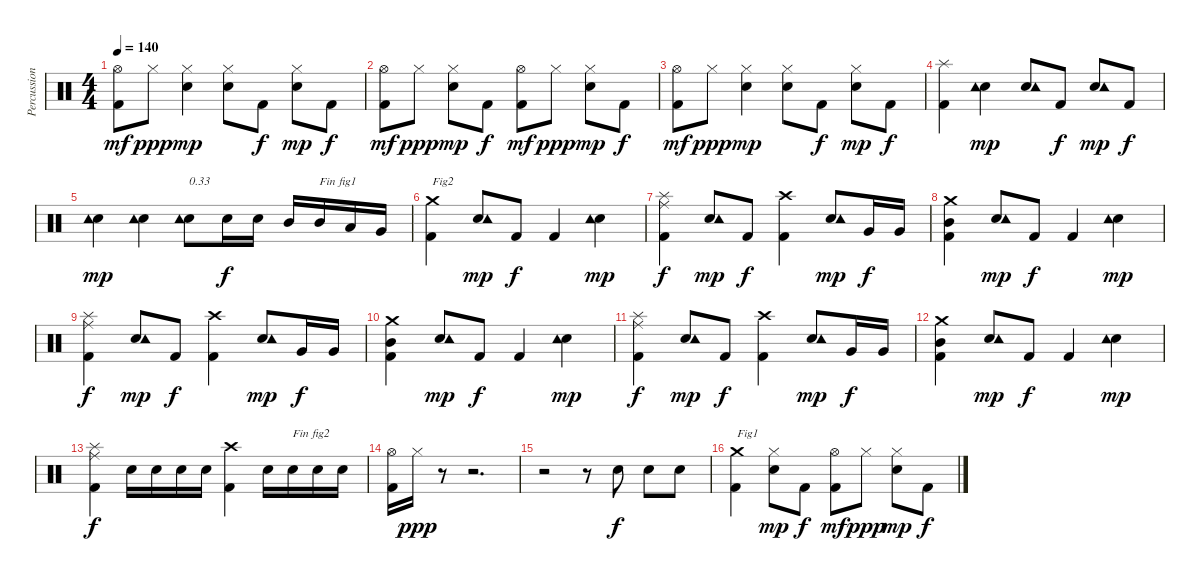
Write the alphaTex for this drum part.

\track ("Percussions" "Percussion") {instrument percussion}
\staff {score}
\articulation defaults
\ts (4 4)
\tempo 140
\clef neutral
\ks c
("Kick (hit) 2" "Hi-Hat (open)").8{dy mf} "Hi-Hat (closed)".8{dy ppp} ("Electric Snare (hit)" "Hi-Hat (closed)").4{dy mp} ("Electric Snare (hit)" "Hi-Hat (closed)").8 "Kick (hit) 2".8{dy f} ("Electric Snare (hit)" "Hi-Hat (closed)").8{dy mp} "Kick (hit) 2".8{dy f} |
("Kick (hit) 2" "Hi-Hat (open)").8{dy mf} "Hi-Hat (closed)".8{dy ppp} ("Electric Snare (hit)" "Hi-Hat (closed)").8{dy mp} "Kick (hit) 2".8{dy f} ("Kick (hit) 2" "Hi-Hat (open)").8{dy mf} "Hi-Hat (closed)".8{dy ppp} ("Electric Snare (hit)" "Hi-Hat (closed)").8{dy mp} "Kick (hit) 2".8{dy f} |
("Kick (hit) 2" "Hi-Hat (open)").8{dy mf} "Hi-Hat (closed)".8{dy ppp} ("Electric Snare (hit)" "Hi-Hat (closed)").4{dy mp} ("Electric Snare (hit)" "Hi-Hat (closed)").8 "Kick (hit) 2".8{dy f} ("Electric Snare (hit)" "Hi-Hat (closed)").8{dy mp} "Kick (hit) 2".8{dy f} |
("Kick (hit) 2" "Splash (hit)").4 ("Electric Snare (hit)" "Tambourine (hit)").4{dy mp} ("Electric Snare (hit)" "Tambourine (hit)").8 "Kick (hit) 2".8{dy f} ("Electric Snare (hit)" "Tambourine (hit)").8{dy mp} "Kick (hit) 2".8{dy f} |
("Electric Snare (hit)" "Tambourine (hit)").4{dy mp} ("Electric Snare (hit)" "Tambourine (hit)").4 ("Electric Snare (hit)" "Tambourine (hit)").8{txt "0.33"} "Electric Snare (hit)".16{dy f} "Electric Snare (hit)".16 "Mid Tom (hit)".16 "Mid Tom (hit)".16{txt "Fin fig1"} "Low Tom (hit)".16 "Very Low Tom (hit)".16 |
("Kick (hit) 2" "Crash medium (hit)").4{txt "Fig2"} ("Electric Snare (hit)" "Tambourine (hit)").8{dy mp} "Kick (hit) 2".8{dy f} "Kick (hit) 2".4 ("Electric Snare (hit)" "Tambourine (hit)").4{dy mp} |
("Kick (hit) 2" "Ride (middle)" "Splash (hit)").4{dy f} ("Electric Snare (hit)" "Tambourine (hit)").8{dy mp} "Kick (hit) 2".8{dy f} ("Kick (hit) 2" "Crash high (hit)").4 ("Electric Snare (hit)" "Tambourine (hit)").8{dy mp} "Very Low Tom (hit)".16{dy f} "Very Low Tom (hit)".16 |
("Kick (hit) 2" "Mid Tom (hit)" "Crash medium (hit)").4 ("Electric Snare (hit)" "Tambourine (hit)").8{dy mp} "Kick (hit) 2".8{dy f} "Kick (hit) 2".4 ("Electric Snare (hit)" "Tambourine (hit)").4{dy mp} |
("Kick (hit) 2" "Ride (middle)" "Splash (hit)").4{dy f} ("Electric Snare (hit)" "Tambourine (hit)").8{dy mp} "Kick (hit) 2".8{dy f} ("Kick (hit) 2" "Crash high (hit)").4 ("Electric Snare (hit)" "Tambourine (hit)").8{dy mp} "Very Low Tom (hit)".16{dy f} "Very Low Tom (hit)".16 |
("Kick (hit) 2" "Mid Tom (hit)" "Crash medium (hit)").4 ("Electric Snare (hit)" "Tambourine (hit)").8{dy mp} "Kick (hit) 2".8{dy f} "Kick (hit) 2".4 ("Electric Snare (hit)" "Tambourine (hit)").4{dy mp} |
("Kick (hit) 2" "Ride (middle)" "Splash (hit)").4{dy f} ("Electric Snare (hit)" "Tambourine (hit)").8{dy mp} "Kick (hit) 2".8{dy f} ("Kick (hit) 2" "Crash high (hit)").4 ("Electric Snare (hit)" "Tambourine (hit)").8{dy mp} "Very Low Tom (hit)".16{dy f} "Very Low Tom (hit)".16 |
("Kick (hit) 2" "Mid Tom (hit)" "Crash medium (hit)").4 ("Electric Snare (hit)" "Tambourine (hit)").8{dy mp} "Kick (hit) 2".8{dy f} "Kick (hit) 2".4 ("Electric Snare (hit)" "Tambourine (hit)").4{dy mp} |
("Kick (hit) 2" "Ride (middle)" "Splash (hit)").4{dy f} "Electric Snare (hit)".16 "Electric Snare (hit)".16 "Electric Snare (hit)".16 "Electric Snare (hit)".16 ("Kick (hit) 2" "Crash high (hit)").4 "Electric Snare (hit)".16 "Electric Snare (hit)".16{txt "Fin fig2"} "Electric Snare (hit)".16 "Electric Snare (hit)".16 |
("Kick (hit) 2" "Hi-Hat (open)").16 "Hi-Hat (closed)".16{dy ppp} r.8 r.2{d} |
r.2 r.8 "Electric Snare (hit)".8{dy f} "Electric Snare (hit)".8 "Electric Snare (hit)".8 |
("Kick (hit) 2" "Crash medium (hit)").4{txt "Fig1"} ("Electric Snare (hit)" "Hi-Hat (closed)").8{dy mp} "Kick (hit) 2".8{dy f} ("Kick (hit) 2" "Hi-Hat (open)").8{dy mf} "Hi-Hat (closed)".8{dy ppp} ("Electric Snare (hit)" "Hi-Hat (closed)").8{dy mp} "Kick (hit) 2".8{dy f}
